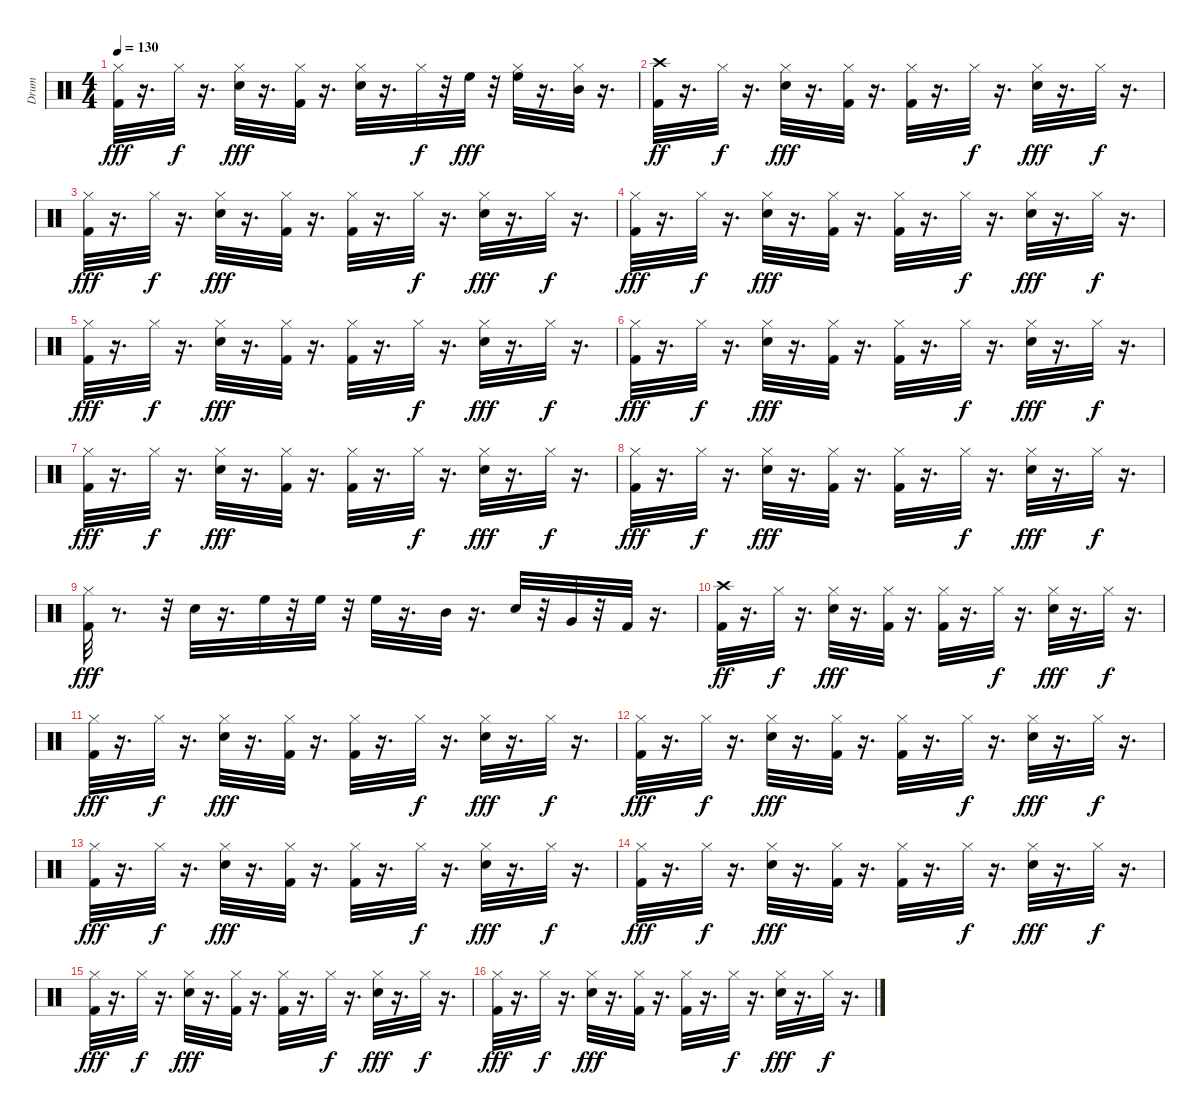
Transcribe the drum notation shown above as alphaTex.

\track ("Drum" "Drum") {instrument percussion}
\staff {score}
\articulation defaults
\ts (4 4)
\tempo 130
\clef neutral
\ks c
("Kick (hit) 2" "Hi-Hat (closed)").32{dy fff} r.16{d} "Hi-Hat (closed)".32{dy f} r.16{d} ("Electric Snare (hit)" "Hi-Hat (closed)").32{dy fff} r.16{d} ("Kick (hit) 2" "Hi-Hat (closed)").32 r.16{d} ("Electric Snare (hit)" "Hi-Hat (closed)").32 r.16{d} "Hi-Hat (closed)".32{dy f} r.32 "High Floor Tom (hit)".32{dy fff} r.32 ("High Floor Tom (hit)" "Hi-Hat (closed)").32 r.16{d} ("Mid Tom (hit)" "Hi-Hat (closed)").32 r.16{d} |
("Kick (hit) 2" "Crash high (hit)").32{dy ff} r.16{d} "Hi-Hat (closed)".32{dy f} r.16{d} ("Hi-Hat (closed)" "Electric Snare (hit)").32{dy fff} r.16{d} ("Kick (hit) 2" "Hi-Hat (closed)").32 r.16{d} ("Kick (hit) 2" "Hi-Hat (closed)").32 r.16{d} "Hi-Hat (closed)".32{dy f} r.16{d} ("Hi-Hat (closed)" "Electric Snare (hit)").32{dy fff} r.16{d} "Hi-Hat (closed)".32{dy f} r.16{d} |
("Hi-Hat (closed)" "Kick (hit) 2").32{dy fff} r.16{d} "Hi-Hat (closed)".32{dy f} r.16{d} ("Hi-Hat (closed)" "Electric Snare (hit)").32{dy fff} r.16{d} ("Kick (hit) 2" "Hi-Hat (closed)").32 r.16{d} ("Kick (hit) 2" "Hi-Hat (closed)").32 r.16{d} "Hi-Hat (closed)".32{dy f} r.16{d} ("Hi-Hat (closed)" "Electric Snare (hit)").32{dy fff} r.16{d} "Hi-Hat (closed)".32{dy f} r.16{d} |
("Kick (hit) 2" "Hi-Hat (closed)").32{dy fff} r.16{d} "Hi-Hat (closed)".32{dy f} r.16{d} ("Hi-Hat (closed)" "Electric Snare (hit)").32{dy fff} r.16{d} ("Kick (hit) 2" "Hi-Hat (closed)").32 r.16{d} ("Kick (hit) 2" "Hi-Hat (closed)").32 r.16{d} "Hi-Hat (closed)".32{dy f} r.16{d} ("Hi-Hat (closed)" "Electric Snare (hit)").32{dy fff} r.16{d} "Hi-Hat (closed)".32{dy f} r.16{d} |
("Kick (hit) 2" "Hi-Hat (closed)").32{dy fff} r.16{d} "Hi-Hat (closed)".32{dy f} r.16{d} ("Hi-Hat (closed)" "Electric Snare (hit)").32{dy fff} r.16{d} ("Kick (hit) 2" "Hi-Hat (closed)").32 r.16{d} ("Kick (hit) 2" "Hi-Hat (closed)").32 r.16{d} "Hi-Hat (closed)".32{dy f} r.16{d} ("Hi-Hat (closed)" "Electric Snare (hit)").32{dy fff} r.16{d} "Hi-Hat (closed)".32{dy f} r.16{d} |
("Kick (hit) 2" "Hi-Hat (closed)").32{dy fff} r.16{d} "Hi-Hat (closed)".32{dy f} r.16{d} ("Hi-Hat (closed)" "Electric Snare (hit)").32{dy fff} r.16{d} ("Kick (hit) 2" "Hi-Hat (closed)").32 r.16{d} ("Kick (hit) 2" "Hi-Hat (closed)").32 r.16{d} "Hi-Hat (closed)".32{dy f} r.16{d} ("Hi-Hat (closed)" "Electric Snare (hit)").32{dy fff} r.16{d} "Hi-Hat (closed)".32{dy f} r.16{d} |
("Kick (hit) 2" "Hi-Hat (closed)").32{dy fff} r.16{d} "Hi-Hat (closed)".32{dy f} r.16{d} ("Hi-Hat (closed)" "Electric Snare (hit)").32{dy fff} r.16{d} ("Kick (hit) 2" "Hi-Hat (closed)").32 r.16{d} ("Kick (hit) 2" "Hi-Hat (closed)").32 r.16{d} "Hi-Hat (closed)".32{dy f} r.16{d} ("Hi-Hat (closed)" "Electric Snare (hit)").32{dy fff} r.16{d} "Hi-Hat (closed)".32{dy f} r.16{d} |
("Kick (hit) 2" "Hi-Hat (closed)").32{dy fff} r.16{d} "Hi-Hat (closed)".32{dy f} r.16{d} ("Hi-Hat (closed)" "Electric Snare (hit)").32{dy fff} r.16{d} ("Kick (hit) 2" "Hi-Hat (closed)").32 r.16{d} ("Kick (hit) 2" "Hi-Hat (closed)").32 r.16{d} "Hi-Hat (closed)".32{dy f} r.16{d} ("Hi-Hat (closed)" "Electric Snare (hit)").32{dy fff} r.16{d} "Hi-Hat (closed)".32{dy f} r.16{d} |
("Kick (hit) 2" "Hi-Hat (closed)").32{dy fff} r.8{d} r.32 "Electric Snare (hit)".32 r.16{d} "High Floor Tom (hit)".32 r.32 "High Floor Tom (hit)".32 r.32 "High Floor Tom (hit)".32 r.16{d} "Mid Tom (hit)".32 r.16{d} "Electric Snare (hit)".32 r.32 "Very Low Tom (hit)".32 r.32 "Kick (hit) 2".32 r.16{d} |
("Kick (hit) 2" "Crash high (hit)").32{dy ff} r.16{d} "Hi-Hat (closed)".32{dy f} r.16{d} ("Hi-Hat (closed)" "Electric Snare (hit)").32{dy fff} r.16{d} ("Kick (hit) 2" "Hi-Hat (closed)").32 r.16{d} ("Kick (hit) 2" "Hi-Hat (closed)").32 r.16{d} "Hi-Hat (closed)".32{dy f} r.16{d} ("Hi-Hat (closed)" "Electric Snare (hit)").32{dy fff} r.16{d} "Hi-Hat (closed)".32{dy f} r.16{d} |
("Kick (hit) 2" "Hi-Hat (closed)").32{dy fff} r.16{d} "Hi-Hat (closed)".32{dy f} r.16{d} ("Hi-Hat (closed)" "Electric Snare (hit)").32{dy fff} r.16{d} ("Kick (hit) 2" "Hi-Hat (closed)").32 r.16{d} ("Kick (hit) 2" "Hi-Hat (closed)").32 r.16{d} "Hi-Hat (closed)".32{dy f} r.16{d} ("Hi-Hat (closed)" "Electric Snare (hit)").32{dy fff} r.16{d} "Hi-Hat (closed)".32{dy f} r.16{d} |
("Kick (hit) 2" "Hi-Hat (closed)").32{dy fff} r.16{d} "Hi-Hat (closed)".32{dy f} r.16{d} ("Hi-Hat (closed)" "Electric Snare (hit)").32{dy fff} r.16{d} ("Kick (hit) 2" "Hi-Hat (closed)").32 r.16{d} ("Kick (hit) 2" "Hi-Hat (closed)").32 r.16{d} "Hi-Hat (closed)".32{dy f} r.16{d} ("Hi-Hat (closed)" "Electric Snare (hit)").32{dy fff} r.16{d} "Hi-Hat (closed)".32{dy f} r.16{d} |
("Hi-Hat (closed)" "Kick (hit) 2").32{dy fff} r.16{d} "Hi-Hat (closed)".32{dy f} r.16{d} ("Hi-Hat (closed)" "Electric Snare (hit)").32{dy fff} r.16{d} ("Kick (hit) 2" "Hi-Hat (closed)").32 r.16{d} ("Kick (hit) 2" "Hi-Hat (closed)").32 r.16{d} "Hi-Hat (closed)".32{dy f} r.16{d} ("Hi-Hat (closed)" "Electric Snare (hit)").32{dy fff} r.16{d} "Hi-Hat (closed)".32{dy f} r.16{d} |
("Kick (hit) 2" "Hi-Hat (closed)").32{dy fff} r.16{d} "Hi-Hat (closed)".32{dy f} r.16{d} ("Hi-Hat (closed)" "Electric Snare (hit)").32{dy fff} r.16{d} ("Kick (hit) 2" "Hi-Hat (closed)").32 r.16{d} ("Kick (hit) 2" "Hi-Hat (closed)").32 r.16{d} "Hi-Hat (closed)".32{dy f} r.16{d} ("Hi-Hat (closed)" "Electric Snare (hit)").32{dy fff} r.16{d} "Hi-Hat (closed)".32{dy f} r.16{d} |
("Kick (hit) 2" "Hi-Hat (closed)").32{dy fff} r.16{d} "Hi-Hat (closed)".32{dy f} r.16{d} ("Hi-Hat (closed)" "Electric Snare (hit)").32{dy fff} r.16{d} ("Kick (hit) 2" "Hi-Hat (closed)").32 r.16{d} ("Kick (hit) 2" "Hi-Hat (closed)").32 r.16{d} "Hi-Hat (closed)".32{dy f} r.16{d} ("Hi-Hat (closed)" "Electric Snare (hit)").32{dy fff} r.16{d} "Hi-Hat (closed)".32{dy f} r.16{d} |
("Kick (hit) 2" "Hi-Hat (closed)").32{dy fff} r.16{d} "Hi-Hat (closed)".32{dy f} r.16{d} ("Hi-Hat (closed)" "Electric Snare (hit)").32{dy fff} r.16{d} ("Kick (hit) 2" "Hi-Hat (closed)").32 r.16{d} ("Kick (hit) 2" "Hi-Hat (closed)").32 r.16{d} "Hi-Hat (closed)".32{dy f} r.16{d} ("Hi-Hat (closed)" "Electric Snare (hit)").32{dy fff} r.16{d} "Hi-Hat (closed)".32{dy f} r.16{d}
